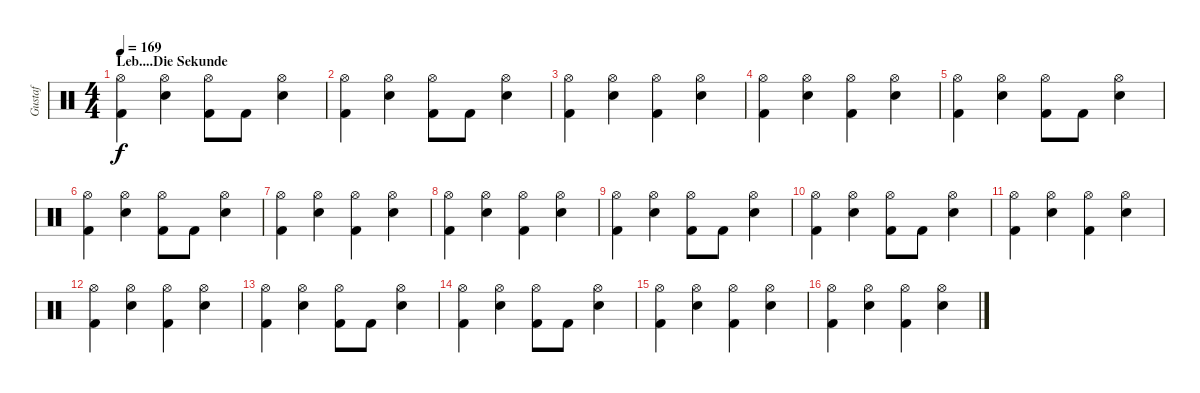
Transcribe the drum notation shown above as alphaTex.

\track ("Gustaf" "Gustaf") {instrument percussion}
\staff {score}
\articulation defaults
\ts (4 4)
\section ("" "Leb....Die Sekunde")
\tempo 169
\clef neutral
\ks c
("Hi-Hat (open)" "Kick (hit) 2").4{dy f} ("Hi-Hat (open)" "Snare (hit) 2").4 ("Hi-Hat (open)" "Kick (hit) 2").8 "Kick (hit) 2".8 ("Hi-Hat (open)" "Snare (hit) 2").4 |
("Hi-Hat (open)" "Kick (hit) 2").4 ("Hi-Hat (open)" "Snare (hit) 2").4 ("Hi-Hat (open)" "Kick (hit) 2").8 "Kick (hit) 2".8 ("Hi-Hat (open)" "Snare (hit) 2").4 |
("Hi-Hat (open)" "Kick (hit) 2").4 ("Hi-Hat (open)" "Snare (hit) 2").4 ("Hi-Hat (open)" "Kick (hit) 2").4 ("Hi-Hat (open)" "Snare (hit) 2").4 |
("Hi-Hat (open)" "Kick (hit) 2").4 ("Hi-Hat (open)" "Snare (hit) 2").4 ("Hi-Hat (open)" "Kick (hit) 2").4 ("Hi-Hat (open)" "Snare (hit) 2").4 |
("Hi-Hat (open)" "Kick (hit) 2").4 ("Hi-Hat (open)" "Snare (hit) 2").4 ("Hi-Hat (open)" "Kick (hit) 2").8 "Kick (hit) 2".8 ("Hi-Hat (open)" "Snare (hit) 2").4 |
("Hi-Hat (open)" "Kick (hit) 2").4 ("Hi-Hat (open)" "Snare (hit) 2").4 ("Hi-Hat (open)" "Kick (hit) 2").8 "Kick (hit) 2".8 ("Hi-Hat (open)" "Snare (hit) 2").4 |
("Hi-Hat (open)" "Kick (hit) 2").4 ("Hi-Hat (open)" "Snare (hit) 2").4 ("Hi-Hat (open)" "Kick (hit) 2").4 ("Hi-Hat (open)" "Snare (hit) 2").4 |
("Hi-Hat (open)" "Kick (hit) 2").4 ("Hi-Hat (open)" "Snare (hit) 2").4 ("Hi-Hat (open)" "Kick (hit) 2").4 ("Hi-Hat (open)" "Snare (hit) 2").4 |
("Hi-Hat (open)" "Kick (hit) 2").4 ("Hi-Hat (open)" "Snare (hit) 2").4 ("Hi-Hat (open)" "Kick (hit) 2").8 "Kick (hit) 2".8 ("Hi-Hat (open)" "Snare (hit) 2").4 |
("Hi-Hat (open)" "Kick (hit) 2").4 ("Hi-Hat (open)" "Snare (hit) 2").4 ("Hi-Hat (open)" "Kick (hit) 2").8 "Kick (hit) 2".8 ("Hi-Hat (open)" "Snare (hit) 2").4 |
("Hi-Hat (open)" "Kick (hit) 2").4 ("Hi-Hat (open)" "Snare (hit) 2").4 ("Hi-Hat (open)" "Kick (hit) 2").4 ("Hi-Hat (open)" "Snare (hit) 2").4 |
("Hi-Hat (open)" "Kick (hit) 2").4 ("Hi-Hat (open)" "Snare (hit) 2").4 ("Hi-Hat (open)" "Kick (hit) 2").4 ("Hi-Hat (open)" "Snare (hit) 2").4 |
("Hi-Hat (open)" "Kick (hit) 2").4 ("Hi-Hat (open)" "Snare (hit) 2").4 ("Hi-Hat (open)" "Kick (hit) 2").8 "Kick (hit) 2".8 ("Hi-Hat (open)" "Snare (hit) 2").4 |
("Hi-Hat (open)" "Kick (hit) 2").4 ("Hi-Hat (open)" "Snare (hit) 2").4 ("Hi-Hat (open)" "Kick (hit) 2").8 "Kick (hit) 2".8 ("Hi-Hat (open)" "Snare (hit) 2").4 |
("Hi-Hat (open)" "Kick (hit) 2").4 ("Hi-Hat (open)" "Snare (hit) 2").4 ("Hi-Hat (open)" "Kick (hit) 2").4 ("Hi-Hat (open)" "Snare (hit) 2").4 |
("Hi-Hat (open)" "Kick (hit) 2").4 ("Hi-Hat (open)" "Snare (hit) 2").4 ("Hi-Hat (open)" "Kick (hit) 2").4 ("Hi-Hat (open)" "Snare (hit) 2").4
